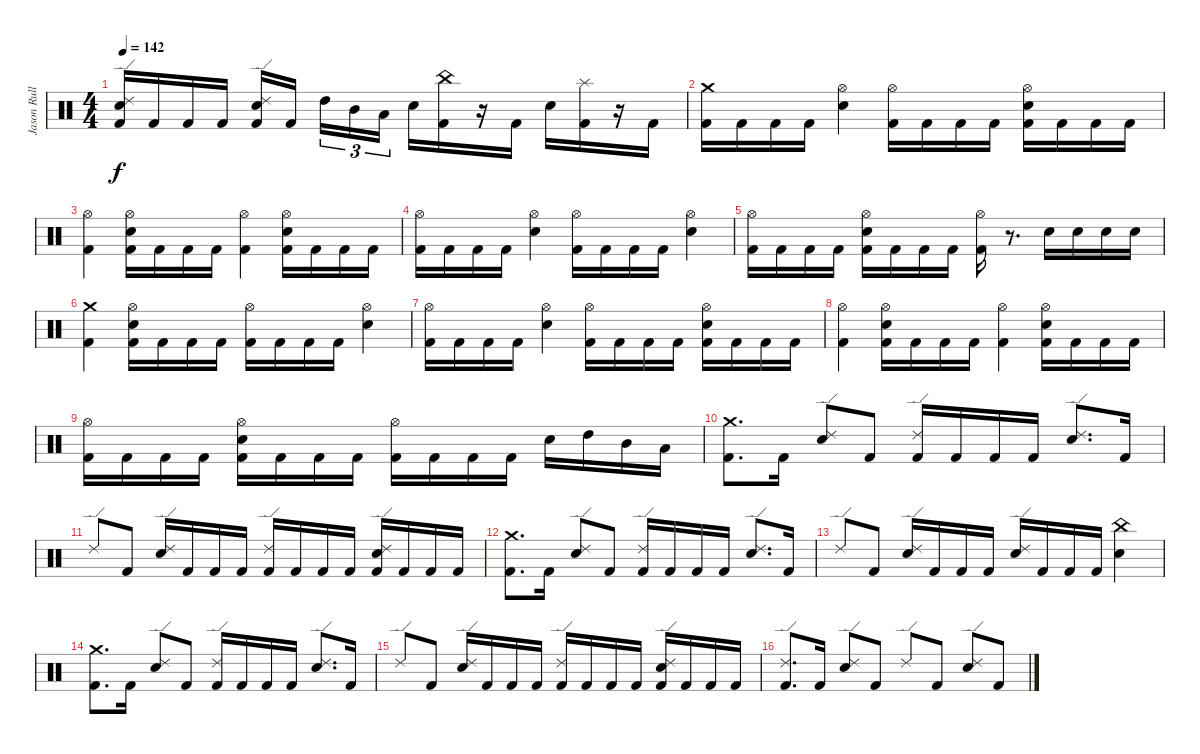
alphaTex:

\track ("Jason Rullo (drums)" "Jason Rull") {solo instrument percussion}
\staff {score}
\articulation defaults
\ts (4 4)
\tempo 142
\clef neutral
\ks c
("Ride (edge) 2" "Kick (hit) 2" "Electric Snare (hit)").16{dy f} "Kick (hit) 2".16 "Kick (hit) 2".16 "Kick (hit) 2".16 ("Ride (edge) 2" "Kick (hit) 2" "Electric Snare (hit)").16 "Kick (hit) 2".16{beam splitsecondary} "High Tom (hit)".16{tu (3 2)} "Mid Tom (hit)".16{tu (3 2)} "Low Tom (hit)".16{tu (3 2)} "Electric Snare (hit)".16 ("China (hit)" "Kick (hit) 2").16 r.16 "Kick (hit) 2".16 "Electric Snare (hit)".16 ("Splash (hit)" "Kick (hit) 2").16 r.16 "Kick (hit) 2".16 |
("Crash medium (hit)" "Kick (hit) 2").16 "Kick (hit) 2".16 "Kick (hit) 2".16 "Kick (hit) 2".16 ("Hi-Hat (open)" "Electric Snare (hit)").4 ("Hi-Hat (open)" "Kick (hit) 2").16 "Kick (hit) 2".16 "Kick (hit) 2".16 "Kick (hit) 2".16 ("Hi-Hat (open)" "Electric Snare (hit)" "Kick (hit) 2").16 "Kick (hit) 2".16 "Kick (hit) 2".16 "Kick (hit) 2".16 |
("Hi-Hat (open)" "Kick (hit) 2").4 ("Hi-Hat (open)" "Electric Snare (hit)" "Kick (hit) 2").16 "Kick (hit) 2".16 "Kick (hit) 2".16 "Kick (hit) 2".16 ("Kick (hit) 2" "Hi-Hat (open)").4 ("Hi-Hat (open)" "Electric Snare (hit)" "Kick (hit) 2").16 "Kick (hit) 2".16 "Kick (hit) 2".16 "Kick (hit) 2".16 |
("Hi-Hat (open)" "Kick (hit) 2").16 "Kick (hit) 2".16 "Kick (hit) 2".16 "Kick (hit) 2".16 ("Electric Snare (hit)" "Hi-Hat (open)").4 ("Hi-Hat (open)" "Kick (hit) 2").16 "Kick (hit) 2".16 "Kick (hit) 2".16 "Kick (hit) 2".16 ("Electric Snare (hit)" "Hi-Hat (open)").4 |
("Hi-Hat (open)" "Kick (hit) 2").16 "Kick (hit) 2".16 "Kick (hit) 2".16 "Kick (hit) 2".16 ("Electric Snare (hit)" "Hi-Hat (open)" "Kick (hit) 2").16 "Kick (hit) 2".16 "Kick (hit) 2".16 "Kick (hit) 2".16 ("Hi-Hat (open)" "Kick (hit) 2").16 r.8{d} "Electric Snare (hit)".16 "Electric Snare (hit)".16 "Electric Snare (hit)".16 "Electric Snare (hit)".16 |
("Crash medium (hit)" "Kick (hit) 2").4 ("Hi-Hat (open)" "Electric Snare (hit)" "Kick (hit) 2").16 "Kick (hit) 2".16 "Kick (hit) 2".16 "Kick (hit) 2".16 ("Hi-Hat (open)" "Kick (hit) 2").16 "Kick (hit) 2".16 "Kick (hit) 2".16 "Kick (hit) 2".16 ("Electric Snare (hit)" "Hi-Hat (open)").4 |
("Hi-Hat (open)" "Kick (hit) 2").16 "Kick (hit) 2".16 "Kick (hit) 2".16 "Kick (hit) 2".16 ("Hi-Hat (open)" "Electric Snare (hit)").4 ("Hi-Hat (open)" "Kick (hit) 2").16 "Kick (hit) 2".16 "Kick (hit) 2".16 "Kick (hit) 2".16 ("Hi-Hat (open)" "Electric Snare (hit)" "Kick (hit) 2").16 "Kick (hit) 2".16 "Kick (hit) 2".16 "Kick (hit) 2".16 |
("Hi-Hat (open)" "Kick (hit) 2").4 ("Hi-Hat (open)" "Electric Snare (hit)" "Kick (hit) 2").16 "Kick (hit) 2".16 "Kick (hit) 2".16 "Kick (hit) 2".16 ("Kick (hit) 2" "Hi-Hat (open)").4 ("Hi-Hat (open)" "Electric Snare (hit)" "Kick (hit) 2").16 "Kick (hit) 2".16 "Kick (hit) 2".16 "Kick (hit) 2".16 |
("Hi-Hat (open)" "Kick (hit) 2").16 "Kick (hit) 2".16 "Kick (hit) 2".16 "Kick (hit) 2".16 ("Kick (hit) 2" "Electric Snare (hit)" "Hi-Hat (open)").16 "Kick (hit) 2".16 "Kick (hit) 2".16 "Kick (hit) 2".16 ("Hi-Hat (open)" "Kick (hit) 2").16 "Kick (hit) 2".16 "Kick (hit) 2".16 "Kick (hit) 2".16 "Electric Snare (hit)".16 "High Tom (hit)".16 "Mid Tom (hit)".16 "Low Tom (hit)".16 |
("Crash medium (hit)" "Kick (hit) 2").8{d} "Kick (hit) 2".16 ("Ride (edge) 2" "Electric Snare (hit)").8 "Kick (hit) 2".8 ("Ride (edge) 2" "Kick (hit) 2").16 "Kick (hit) 2".16 "Kick (hit) 2".16 "Kick (hit) 2".16 ("Ride (edge) 2" "Electric Snare (hit)").8{d} "Kick (hit) 2".16 |
"Ride (edge) 2".8 "Kick (hit) 2".8 ("Electric Snare (hit)" "Ride (edge) 2").16 "Kick (hit) 2".16 "Kick (hit) 2".16 "Kick (hit) 2".16 ("Kick (hit) 2" "Ride (edge) 2").16 "Kick (hit) 2".16 "Kick (hit) 2".16 "Kick (hit) 2".16 ("Electric Snare (hit)" "Kick (hit) 2" "Ride (edge) 2").16 "Kick (hit) 2".16 "Kick (hit) 2".16 "Kick (hit) 2".16 |
("Crash medium (hit)" "Kick (hit) 2").8{d} "Kick (hit) 2".16 ("Ride (edge) 2" "Electric Snare (hit)").8 "Kick (hit) 2".8 ("Ride (edge) 2" "Kick (hit) 2").16 "Kick (hit) 2".16 "Kick (hit) 2".16 "Kick (hit) 2".16 ("Ride (edge) 2" "Electric Snare (hit)").8{d} "Kick (hit) 2".16 |
"Ride (edge) 2".8 "Kick (hit) 2".8 ("Electric Snare (hit)" "Ride (edge) 2").16 "Kick (hit) 2".16 "Kick (hit) 2".16 "Kick (hit) 2".16 ("Electric Snare (hit)" "Ride (edge) 2").16 "Kick (hit) 2".16 "Kick (hit) 2".16 "Kick (hit) 2".16 ("China (hit)" "Electric Snare (hit)").4 |
("Crash medium (hit)" "Kick (hit) 2").8{d} "Kick (hit) 2".16 ("Ride (edge) 2" "Electric Snare (hit)").8 "Kick (hit) 2".8 ("Ride (edge) 2" "Kick (hit) 2").16 "Kick (hit) 2".16 "Kick (hit) 2".16 "Kick (hit) 2".16 ("Ride (edge) 2" "Electric Snare (hit)").8{d} "Kick (hit) 2".16 |
"Ride (edge) 2".8 "Kick (hit) 2".8 ("Electric Snare (hit)" "Ride (edge) 2").16 "Kick (hit) 2".16 "Kick (hit) 2".16 "Kick (hit) 2".16 ("Kick (hit) 2" "Ride (edge) 2").16 "Kick (hit) 2".16 "Kick (hit) 2".16 "Kick (hit) 2".16 ("Electric Snare (hit)" "Kick (hit) 2" "Ride (edge) 2").16 "Kick (hit) 2".16 "Kick (hit) 2".16 "Kick (hit) 2".16 |
("Ride (edge) 2" "Kick (hit) 2").8{d} "Kick (hit) 2".16 ("Ride (edge) 2" "Electric Snare (hit)").8 "Kick (hit) 2".8 "Ride (edge) 2".8 "Kick (hit) 2".8 ("Ride (edge) 2" "Electric Snare (hit)").8 "Kick (hit) 2".8
